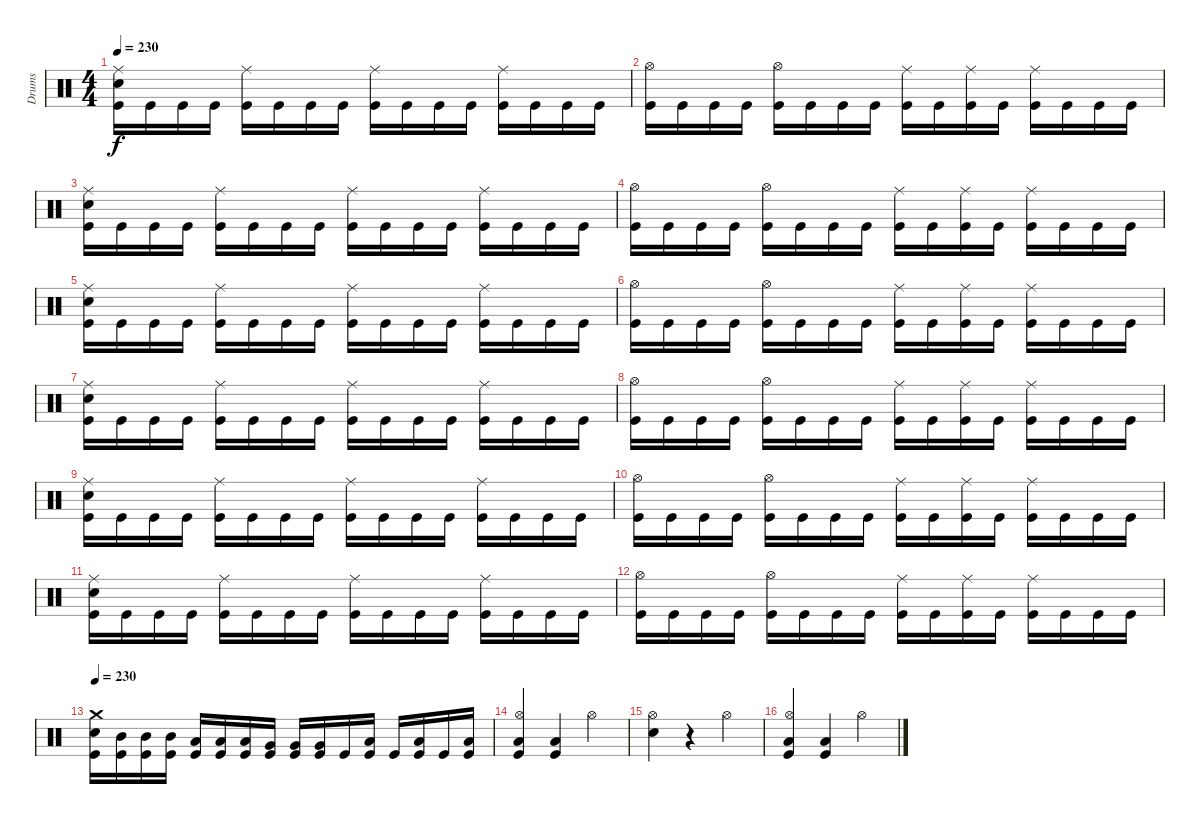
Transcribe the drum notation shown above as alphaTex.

\track ("Drums" "Drums") {instrument percussion}
\staff {score}
\articulation defaults
\ts (4 4)
\tempo 230
\clef neutral
\ks c
("Ride (middle)" "Electric Snare (hit)" "Kick (hit)").16{dy f} "Kick (hit)".16 "Kick (hit)".16 "Kick (hit)".16 ("Ride (middle)" "Kick (hit)").16 "Kick (hit)".16 "Kick (hit)".16 "Kick (hit)".16 ("Ride (middle)" "Kick (hit)").16 "Kick (hit)".16 "Kick (hit)".16 "Kick (hit)".16 ("Ride (middle)" "Kick (hit)").16 "Kick (hit)".16 "Kick (hit)".16 "Kick (hit)".16 |
("Hi-Hat (open)" "Kick (hit)").16 "Kick (hit)".16 "Kick (hit)".16 "Kick (hit)".16 ("Hi-Hat (open)" "Kick (hit)").16 "Kick (hit)".16 "Kick (hit)".16 "Kick (hit)".16 ("Ride (middle)" "Kick (hit)").16 "Kick (hit)".16 ("Ride (middle)" "Kick (hit)").16 "Kick (hit)".16 ("Ride (middle)" "Kick (hit)").16 "Kick (hit)".16 "Kick (hit)".16 "Kick (hit)".16 |
("Ride (middle)" "Electric Snare (hit)" "Kick (hit)").16 "Kick (hit)".16 "Kick (hit)".16 "Kick (hit)".16 ("Ride (middle)" "Kick (hit)").16 "Kick (hit)".16 "Kick (hit)".16 "Kick (hit)".16 ("Ride (middle)" "Kick (hit)").16 "Kick (hit)".16 "Kick (hit)".16 "Kick (hit)".16 ("Ride (middle)" "Kick (hit)").16 "Kick (hit)".16 "Kick (hit)".16 "Kick (hit)".16 |
("Hi-Hat (open)" "Kick (hit)").16 "Kick (hit)".16 "Kick (hit)".16 "Kick (hit)".16 ("Hi-Hat (open)" "Kick (hit)").16 "Kick (hit)".16 "Kick (hit)".16 "Kick (hit)".16 ("Ride (middle)" "Kick (hit)").16 "Kick (hit)".16 ("Ride (middle)" "Kick (hit)").16 "Kick (hit)".16 ("Ride (middle)" "Kick (hit)").16 "Kick (hit)".16 "Kick (hit)".16 "Kick (hit)".16 |
("Ride (middle)" "Electric Snare (hit)" "Kick (hit)").16 "Kick (hit)".16 "Kick (hit)".16 "Kick (hit)".16 ("Ride (middle)" "Kick (hit)").16 "Kick (hit)".16 "Kick (hit)".16 "Kick (hit)".16 ("Ride (middle)" "Kick (hit)").16 "Kick (hit)".16 "Kick (hit)".16 "Kick (hit)".16 ("Ride (middle)" "Kick (hit)").16 "Kick (hit)".16 "Kick (hit)".16 "Kick (hit)".16 |
("Hi-Hat (open)" "Kick (hit)").16 "Kick (hit)".16 "Kick (hit)".16 "Kick (hit)".16 ("Hi-Hat (open)" "Kick (hit)").16 "Kick (hit)".16 "Kick (hit)".16 "Kick (hit)".16 ("Ride (middle)" "Kick (hit)").16 "Kick (hit)".16 ("Ride (middle)" "Kick (hit)").16 "Kick (hit)".16 ("Ride (middle)" "Kick (hit)").16 "Kick (hit)".16 "Kick (hit)".16 "Kick (hit)".16 |
("Ride (middle)" "Electric Snare (hit)" "Kick (hit)").16 "Kick (hit)".16 "Kick (hit)".16 "Kick (hit)".16 ("Ride (middle)" "Kick (hit)").16 "Kick (hit)".16 "Kick (hit)".16 "Kick (hit)".16 ("Ride (middle)" "Kick (hit)").16 "Kick (hit)".16 "Kick (hit)".16 "Kick (hit)".16 ("Ride (middle)" "Kick (hit)").16 "Kick (hit)".16 "Kick (hit)".16 "Kick (hit)".16 |
("Hi-Hat (open)" "Kick (hit)").16 "Kick (hit)".16 "Kick (hit)".16 "Kick (hit)".16 ("Hi-Hat (open)" "Kick (hit)").16 "Kick (hit)".16 "Kick (hit)".16 "Kick (hit)".16 ("Ride (middle)" "Kick (hit)").16 "Kick (hit)".16 ("Ride (middle)" "Kick (hit)").16 "Kick (hit)".16 ("Ride (middle)" "Kick (hit)").16 "Kick (hit)".16 "Kick (hit)".16 "Kick (hit)".16 |
("Ride (middle)" "Electric Snare (hit)" "Kick (hit)").16 "Kick (hit)".16 "Kick (hit)".16 "Kick (hit)".16 ("Ride (middle)" "Kick (hit)").16 "Kick (hit)".16 "Kick (hit)".16 "Kick (hit)".16 ("Ride (middle)" "Kick (hit)").16 "Kick (hit)".16 "Kick (hit)".16 "Kick (hit)".16 ("Ride (middle)" "Kick (hit)").16 "Kick (hit)".16 "Kick (hit)".16 "Kick (hit)".16 |
("Hi-Hat (open)" "Kick (hit)").16 "Kick (hit)".16 "Kick (hit)".16 "Kick (hit)".16 ("Hi-Hat (open)" "Kick (hit)").16 "Kick (hit)".16 "Kick (hit)".16 "Kick (hit)".16 ("Ride (middle)" "Kick (hit)").16 "Kick (hit)".16 ("Ride (middle)" "Kick (hit)").16 "Kick (hit)".16 ("Ride (middle)" "Kick (hit)").16 "Kick (hit)".16 "Kick (hit)".16 "Kick (hit)".16 |
("Ride (middle)" "Electric Snare (hit)" "Kick (hit)").16 "Kick (hit)".16 "Kick (hit)".16 "Kick (hit)".16 ("Ride (middle)" "Kick (hit)").16 "Kick (hit)".16 "Kick (hit)".16 "Kick (hit)".16 ("Ride (middle)" "Kick (hit)").16 "Kick (hit)".16 "Kick (hit)".16 "Kick (hit)".16 ("Ride (middle)" "Kick (hit)").16 "Kick (hit)".16 "Kick (hit)".16 "Kick (hit)".16 |
("Hi-Hat (open)" "Kick (hit)").16 "Kick (hit)".16 "Kick (hit)".16 "Kick (hit)".16 ("Hi-Hat (open)" "Kick (hit)").16 "Kick (hit)".16 "Kick (hit)".16 "Kick (hit)".16 ("Ride (middle)" "Kick (hit)").16 "Kick (hit)".16 ("Ride (middle)" "Kick (hit)").16 "Kick (hit)".16 ("Ride (middle)" "Kick (hit)").16 "Kick (hit)".16 "Kick (hit)".16 "Kick (hit)".16 |
\tempo 230
("Crash medium (hit)" "Electric Snare (hit)" "Kick (hit)").16 ("Mid Tom (hit)" "Kick (hit)").16 ("Mid Tom (hit)" "Kick (hit)").16 ("Mid Tom (hit)" "Kick (hit)").16 ("Low Tom (hit)" "Kick (hit)").16 ("Low Tom (hit)" "Kick (hit)").16 ("Low Tom (hit)" "Kick (hit)").16 ("Very Low Tom (hit)" "Kick (hit)").16 ("Very Low Tom (hit)" "Kick (hit)").16 ("Very Low Tom (hit)" "Kick (hit)").16 "Kick (hit)".16 ("Low Floor Tom (hit)" "Kick (hit)").16 "Kick (hit)".16 ("Low Floor Tom (hit)" "Kick (hit)").16 "Kick (hit)".16 ("Low Floor Tom (hit)" "Kick (hit)").16 |
("Hi-Hat (open)" "Low Floor Tom (hit)" "Kick (hit)").4 ("Low Floor Tom (hit)" "Kick (hit)").4 "Hi-Hat (open)".4 |
("Hi-Hat (open)" "Electric Snare (hit)").4 r.4 "Hi-Hat (open)".4 |
("Hi-Hat (open)" "Low Floor Tom (hit)" "Kick (hit)").4 ("Low Floor Tom (hit)" "Kick (hit)").4 "Hi-Hat (open)".4
